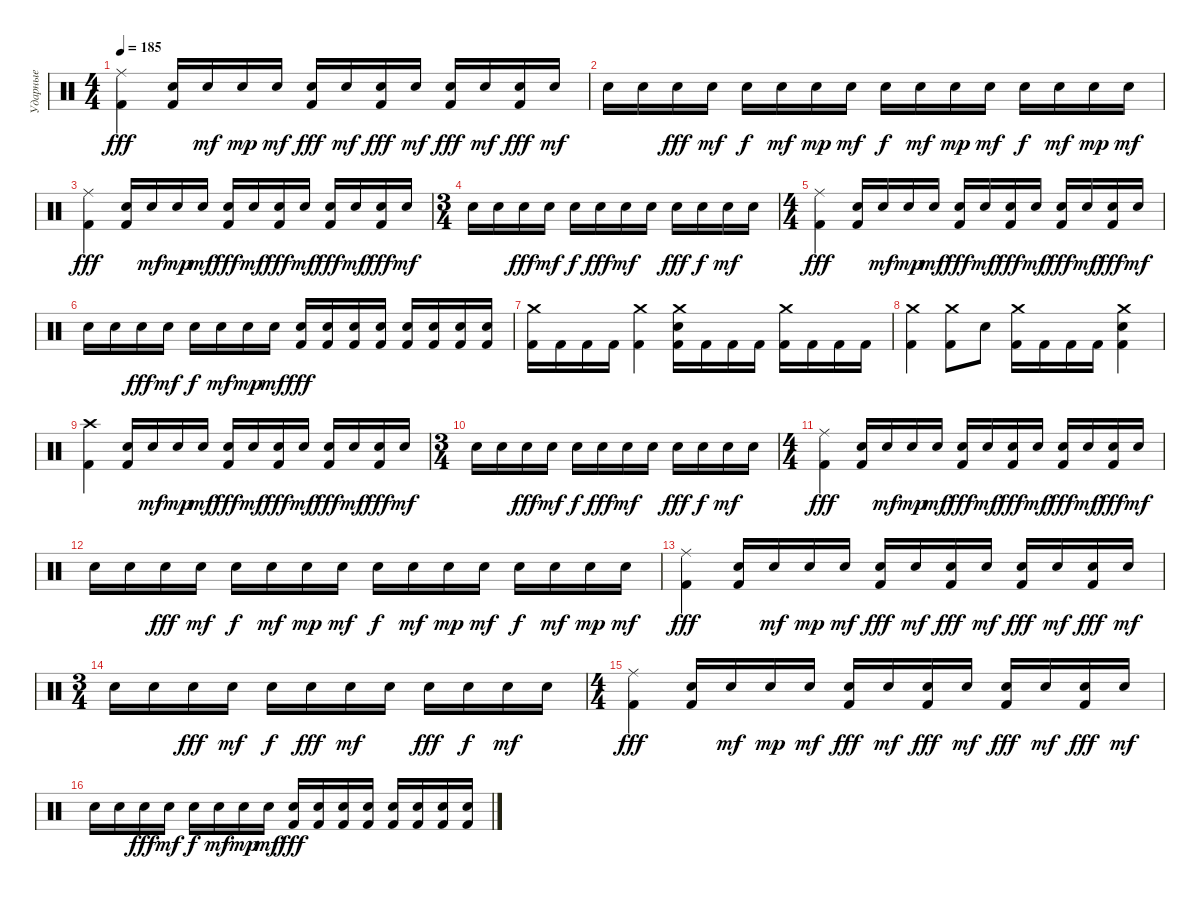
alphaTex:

\track ("Ударные" "Ударные") {instrument percussion}
\staff {score}
\articulation defaults
\ts (4 4)
\tempo 185
\clef neutral
\ks c
("Ride (middle)" "Kick (hit) 2").4{dy fff} ("Electric Snare (hit)" "Kick (hit) 2").16 "Electric Snare (hit)".16{dy mf} "Electric Snare (hit)".16{dy mp} "Electric Snare (hit)".16{dy mf} ("Electric Snare (hit)" "Kick (hit) 2").16{dy fff} "Electric Snare (hit)".16{dy mf} ("Electric Snare (hit)" "Kick (hit) 2").16{dy fff} "Electric Snare (hit)".16{dy mf} ("Electric Snare (hit)" "Kick (hit) 2").16{dy fff} "Electric Snare (hit)".16{dy mf} ("Electric Snare (hit)" "Kick (hit) 2").16{dy fff} "Electric Snare (hit)".16{dy mf} |
"Electric Snare (hit)".16 "Electric Snare (hit)".16 "Electric Snare (hit)".16{dy fff} "Electric Snare (hit)".16{dy mf} "Electric Snare (hit)".16{dy f} "Electric Snare (hit)".16{dy mf} "Electric Snare (hit)".16{dy mp} "Electric Snare (hit)".16{dy mf} "Electric Snare (hit)".16{dy f} "Electric Snare (hit)".16{dy mf} "Electric Snare (hit)".16{dy mp} "Electric Snare (hit)".16{dy mf} "Electric Snare (hit)".16{dy f} "Electric Snare (hit)".16{dy mf} "Electric Snare (hit)".16{dy mp} "Electric Snare (hit)".16{dy mf} |
("Ride (middle)" "Kick (hit) 2").4{dy fff} ("Electric Snare (hit)" "Kick (hit) 2").16 "Electric Snare (hit)".16{dy mf} "Electric Snare (hit)".16{dy mp} "Electric Snare (hit)".16{dy mf} ("Electric Snare (hit)" "Kick (hit) 2").16{dy fff} "Electric Snare (hit)".16{dy mf} ("Electric Snare (hit)" "Kick (hit) 2").16{dy fff} "Electric Snare (hit)".16{dy mf} ("Electric Snare (hit)" "Kick (hit) 2").16{dy fff} "Electric Snare (hit)".16{dy mf} ("Electric Snare (hit)" "Kick (hit) 2").16{dy fff} "Electric Snare (hit)".16{dy mf} |
\ts (3 4)
"Electric Snare (hit)".16 "Electric Snare (hit)".16 "Electric Snare (hit)".16{dy fff} "Electric Snare (hit)".16{dy mf} "Electric Snare (hit)".16{dy f} "Electric Snare (hit)".16{dy fff} "Electric Snare (hit)".16{dy mf} "Electric Snare (hit)".16 "Electric Snare (hit)".16{dy fff} "Electric Snare (hit)".16{dy f} "Electric Snare (hit)".16{dy mf} "Electric Snare (hit)".16 |
\ts (4 4)
("Ride (middle)" "Kick (hit) 2").4{dy fff} ("Electric Snare (hit)" "Kick (hit) 2").16 "Electric Snare (hit)".16{dy mf} "Electric Snare (hit)".16{dy mp} "Electric Snare (hit)".16{dy mf} ("Electric Snare (hit)" "Kick (hit) 2").16{dy fff} "Electric Snare (hit)".16{dy mf} ("Electric Snare (hit)" "Kick (hit) 2").16{dy fff} "Electric Snare (hit)".16{dy mf} ("Electric Snare (hit)" "Kick (hit) 2").16{dy fff} "Electric Snare (hit)".16{dy mf} ("Electric Snare (hit)" "Kick (hit) 2").16{dy fff} "Electric Snare (hit)".16{dy mf} |
"Electric Snare (hit)".16 "Electric Snare (hit)".16 "Electric Snare (hit)".16{dy fff} "Electric Snare (hit)".16{dy mf} "Electric Snare (hit)".16{dy f} "Electric Snare (hit)".16{dy mf} "Electric Snare (hit)".16{dy mp} "Electric Snare (hit)".16{dy mf} ("Electric Snare (hit)" "Kick (hit) 2").16{dy fff} ("Electric Snare (hit)" "Kick (hit) 2").16 ("Electric Snare (hit)" "Kick (hit) 2").16 ("Electric Snare (hit)" "Kick (hit) 2").16 ("Electric Snare (hit)" "Kick (hit) 2").16 ("Electric Snare (hit)" "Kick (hit) 2").16 ("Electric Snare (hit)" "Kick (hit) 2").16 ("Electric Snare (hit)" "Kick (hit) 2").16 |
("Crash medium (hit)" "Kick (hit) 2").16 "Kick (hit) 2".16 "Kick (hit) 2".16 "Kick (hit) 2".16 ("Crash medium (hit)" "Kick (hit) 2").4 ("Crash medium (hit)" "Electric Snare (hit)" "Kick (hit) 2").16 "Kick (hit) 2".16 "Kick (hit) 2".16 "Kick (hit) 2".16 ("Crash medium (hit)" "Kick (hit) 2").16 "Kick (hit) 2".16 "Kick (hit) 2".16 "Kick (hit) 2".16 |
("Crash medium (hit)" "Kick (hit) 2").4 ("Crash medium (hit)" "Kick (hit) 2").8 "Electric Snare (hit)".8 ("Crash medium (hit)" "Kick (hit) 2").16 "Kick (hit) 2".16 "Kick (hit) 2".16 "Kick (hit) 2".16 ("Crash medium (hit)" "Electric Snare (hit)" "Kick (hit) 2").4 |
("Crash high (hit)" "Kick (hit) 2").4 ("Electric Snare (hit)" "Kick (hit) 2").16 "Electric Snare (hit)".16{dy mf} "Electric Snare (hit)".16{dy mp} "Electric Snare (hit)".16{dy mf} ("Electric Snare (hit)" "Kick (hit) 2").16{dy fff} "Electric Snare (hit)".16{dy mf} ("Electric Snare (hit)" "Kick (hit) 2").16{dy fff} "Electric Snare (hit)".16{dy mf} ("Electric Snare (hit)" "Kick (hit) 2").16{dy fff} "Electric Snare (hit)".16{dy mf} ("Electric Snare (hit)" "Kick (hit) 2").16{dy fff} "Electric Snare (hit)".16{dy mf} |
\ts (3 4)
"Electric Snare (hit)".16 "Electric Snare (hit)".16 "Electric Snare (hit)".16{dy fff} "Electric Snare (hit)".16{dy mf} "Electric Snare (hit)".16{dy f} "Electric Snare (hit)".16{dy fff} "Electric Snare (hit)".16{dy mf} "Electric Snare (hit)".16 "Electric Snare (hit)".16{dy fff} "Electric Snare (hit)".16{dy f} "Electric Snare (hit)".16{dy mf} "Electric Snare (hit)".16 |
\ts (4 4)
("Ride (middle)" "Kick (hit) 2").4{dy fff} ("Electric Snare (hit)" "Kick (hit) 2").16 "Electric Snare (hit)".16{dy mf} "Electric Snare (hit)".16{dy mp} "Electric Snare (hit)".16{dy mf} ("Electric Snare (hit)" "Kick (hit) 2").16{dy fff} "Electric Snare (hit)".16{dy mf} ("Electric Snare (hit)" "Kick (hit) 2").16{dy fff} "Electric Snare (hit)".16{dy mf} ("Electric Snare (hit)" "Kick (hit) 2").16{dy fff} "Electric Snare (hit)".16{dy mf} ("Electric Snare (hit)" "Kick (hit) 2").16{dy fff} "Electric Snare (hit)".16{dy mf} |
"Electric Snare (hit)".16 "Electric Snare (hit)".16 "Electric Snare (hit)".16{dy fff} "Electric Snare (hit)".16{dy mf} "Electric Snare (hit)".16{dy f} "Electric Snare (hit)".16{dy mf} "Electric Snare (hit)".16{dy mp} "Electric Snare (hit)".16{dy mf} "Electric Snare (hit)".16{dy f} "Electric Snare (hit)".16{dy mf} "Electric Snare (hit)".16{dy mp} "Electric Snare (hit)".16{dy mf} "Electric Snare (hit)".16{dy f} "Electric Snare (hit)".16{dy mf} "Electric Snare (hit)".16{dy mp} "Electric Snare (hit)".16{dy mf} |
("Ride (middle)" "Kick (hit) 2").4{dy fff} ("Electric Snare (hit)" "Kick (hit) 2").16 "Electric Snare (hit)".16{dy mf} "Electric Snare (hit)".16{dy mp} "Electric Snare (hit)".16{dy mf} ("Electric Snare (hit)" "Kick (hit) 2").16{dy fff} "Electric Snare (hit)".16{dy mf} ("Electric Snare (hit)" "Kick (hit) 2").16{dy fff} "Electric Snare (hit)".16{dy mf} ("Electric Snare (hit)" "Kick (hit) 2").16{dy fff} "Electric Snare (hit)".16{dy mf} ("Electric Snare (hit)" "Kick (hit) 2").16{dy fff} "Electric Snare (hit)".16{dy mf} |
\ts (3 4)
"Electric Snare (hit)".16 "Electric Snare (hit)".16 "Electric Snare (hit)".16{dy fff} "Electric Snare (hit)".16{dy mf} "Electric Snare (hit)".16{dy f} "Electric Snare (hit)".16{dy fff} "Electric Snare (hit)".16{dy mf} "Electric Snare (hit)".16 "Electric Snare (hit)".16{dy fff} "Electric Snare (hit)".16{dy f} "Electric Snare (hit)".16{dy mf} "Electric Snare (hit)".16 |
\ts (4 4)
("Ride (middle)" "Kick (hit) 2").4{dy fff} ("Electric Snare (hit)" "Kick (hit) 2").16 "Electric Snare (hit)".16{dy mf} "Electric Snare (hit)".16{dy mp} "Electric Snare (hit)".16{dy mf} ("Electric Snare (hit)" "Kick (hit) 2").16{dy fff} "Electric Snare (hit)".16{dy mf} ("Electric Snare (hit)" "Kick (hit) 2").16{dy fff} "Electric Snare (hit)".16{dy mf} ("Electric Snare (hit)" "Kick (hit) 2").16{dy fff} "Electric Snare (hit)".16{dy mf} ("Electric Snare (hit)" "Kick (hit) 2").16{dy fff} "Electric Snare (hit)".16{dy mf} |
"Electric Snare (hit)".16 "Electric Snare (hit)".16 "Electric Snare (hit)".16{dy fff} "Electric Snare (hit)".16{dy mf} "Electric Snare (hit)".16{dy f} "Electric Snare (hit)".16{dy mf} "Electric Snare (hit)".16{dy mp} "Electric Snare (hit)".16{dy mf} ("Electric Snare (hit)" "Kick (hit) 2").16{dy fff} ("Electric Snare (hit)" "Kick (hit) 2").16 ("Electric Snare (hit)" "Kick (hit) 2").16 ("Electric Snare (hit)" "Kick (hit) 2").16 ("Electric Snare (hit)" "Kick (hit) 2").16 ("Electric Snare (hit)" "Kick (hit) 2").16 ("Electric Snare (hit)" "Kick (hit) 2").16 ("Electric Snare (hit)" "Kick (hit) 2").16
